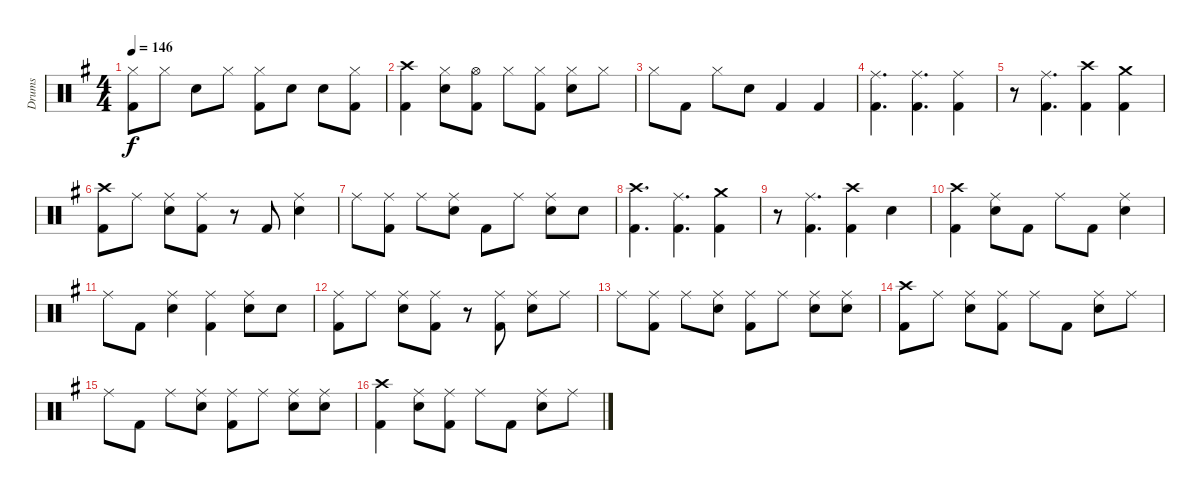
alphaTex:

\track ("Drums" "Drums") {instrument percussion}
\staff {score}
\articulation defaults
\ts (4 4)
\tempo 146
\clef neutral
\ks g
("Kick (hit) 2" "Hi-Hat (closed)").8{dy f} "Hi-Hat (closed)".8 "Snare (hit) 2".8 "Hi-Hat (closed)".8 ("Kick (hit) 2" "Hi-Hat (closed)").8 "Snare (hit) 2".8 "Snare (hit) 2".8 ("Kick (hit) 2" "Hi-Hat (closed)").8 |
("Kick (hit) 2" "Crash high (hit)").4 ("Snare (hit) 2" "Hi-Hat (closed)").8 ("Kick (hit) 2" "Hi-Hat (open)").8 "Hi-Hat (closed)".8 ("Kick (hit) 2" "Hi-Hat (closed)").8 ("Snare (hit) 2" "Hi-Hat (closed)").8 "Hi-Hat (closed)".8 |
"Hi-Hat (closed)".8 "Kick (hit) 2".8 "Hi-Hat (closed)".8 "Snare (hit) 2".8 "Kick (hit) 2".4 "Kick (hit) 2".4 |
("Kick (hit) 2" "Ride (middle)").4{d} ("Kick (hit) 2" "Ride (middle)").4{d} ("Kick (hit) 2" "Ride (middle)").4 |
r.8 ("Kick (hit) 2" "Ride (middle)").4{d} ("Kick (hit) 2" "Crash high (hit)").4 ("Kick (hit) 2" "Crash medium (hit)").4 |
("Kick (hit) 2" "Crash high (hit)").8 "Ride (middle)".8 ("Snare (hit) 2" "Ride (middle)").8 ("Kick (hit) 2" "Ride (middle)").8 r.8 "Kick (hit) 2".8 ("Snare (hit) 2" "Ride (middle)").4 |
"Ride (middle)".8 ("Kick (hit) 2" "Ride (middle)").8 "Ride (middle)".8 ("Snare (hit) 2" "Ride (middle)").8 "Kick (hit) 2".8 "Ride (middle)".8 ("Snare (hit) 2" "Ride (middle)").8 "Snare (hit) 2".8 |
("Kick (hit) 2" "Crash high (hit)").4{d} ("Kick (hit) 2" "Ride (middle)").4{d} ("Kick (hit) 2" "Crash medium (hit)").4 |
r.8 ("Kick (hit) 2" "Ride (middle)").4{d} ("Kick (hit) 2" "Crash high (hit)").4 "Snare (hit) 2".4 |
("Kick (hit) 2" "Crash high (hit)").4 ("Snare (hit) 2" "Ride (middle)").8 "Kick (hit) 2".8 "Ride (middle)".8 "Kick (hit) 2".8 ("Snare (hit) 2" "Ride (middle)").4 |
"Ride (middle)".8 "Kick (hit) 2".8 ("Snare (hit) 2" "Ride (middle)").4 ("Kick (hit) 2" "Ride (middle)").4 ("Snare (hit) 2" "Ride (middle)").8 "Snare (hit) 2".8 |
("Kick (hit) 2" "Ride (middle)").8 "Ride (middle)".8 ("Snare (hit) 2" "Ride (middle)").8 ("Kick (hit) 2" "Ride (middle)").8 r.8 ("Kick (hit) 2" "Ride (middle)").8 ("Snare (hit) 2" "Ride (middle)").8 "Ride (middle)".8 |
"Ride (middle)".8 ("Kick (hit) 2" "Ride (middle)").8 "Ride (middle)".8 ("Snare (hit) 2" "Ride (middle)").8 ("Kick (hit) 2" "Ride (middle)").8 "Ride (middle)".8 ("Snare (hit) 2" "Ride (middle)").8 ("Snare (hit) 2" "Ride (middle)").8 |
("Kick (hit) 2" "Crash high (hit)").8 "Ride (middle)".8 ("Snare (hit) 2" "Ride (middle)").8 ("Kick (hit) 2" "Ride (middle)").8 "Ride (middle)".8 "Kick (hit) 2".8 ("Snare (hit) 2" "Ride (middle)").8 "Ride (middle)".8 |
"Ride (middle)".8 "Kick (hit) 2".8 "Ride (middle)".8 ("Snare (hit) 2" "Ride (middle)").8 ("Kick (hit) 2" "Ride (middle)").8 "Ride (middle)".8 ("Snare (hit) 2" "Ride (middle)").8 ("Snare (hit) 2" "Ride (middle)").8 |
("Kick (hit) 2" "Crash high (hit)").4 ("Snare (hit) 2" "Ride (middle)").8 ("Kick (hit) 2" "Ride (middle)").8 "Ride (middle)".8 "Kick (hit) 2".8 ("Snare (hit) 2" "Ride (middle)").8 "Ride (middle)".8
